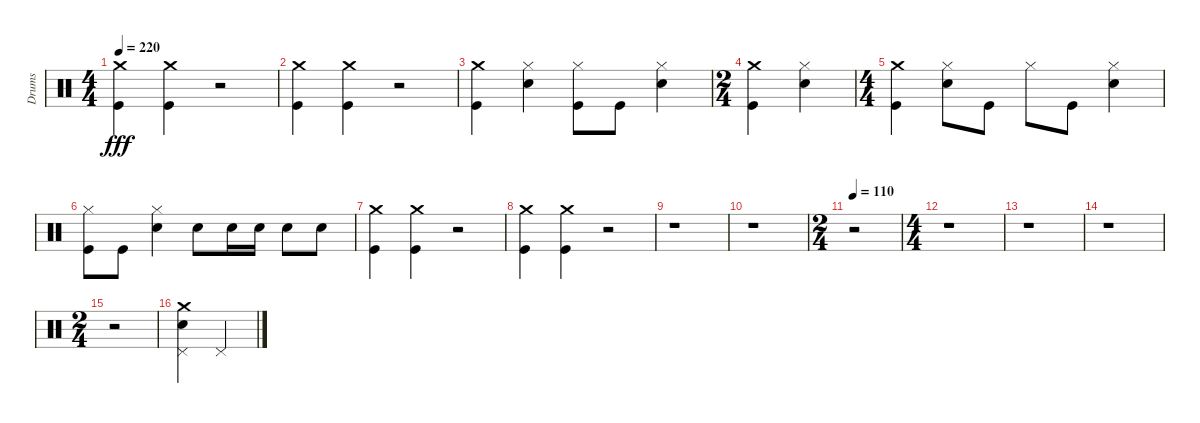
\track ("Drums" "Drums") {instrument percussion}
\staff {score}
\articulation defaults
\ts (4 4)
\tempo 220
\clef neutral
\ks c
("Kick (hit)" "Crash medium (hit)").4{dy fff} ("Kick (hit)" "Crash medium (hit)").4 r.2 |
("Kick (hit)" "Crash medium (hit)").4 ("Crash medium (hit)" "Kick (hit)").4 r.2 |
("Kick (hit)" "Crash medium (hit)").4 ("Snare (hit) 2" "Hi-Hat (closed)").4 ("Kick (hit)" "Hi-Hat (closed)").8 "Kick (hit)".8 ("Snare (hit) 2" "Hi-Hat (closed)").4 |
\ts (2 4)
("Crash medium (hit)" "Kick (hit)").4 ("Snare (hit) 2" "Hi-Hat (closed)").4 |
\ts (4 4)
("Kick (hit)" "Crash medium (hit)").4 ("Snare (hit) 2" "Hi-Hat (closed)").8 "Kick (hit)".8 "Hi-Hat (closed)".8 "Kick (hit)".8 ("Snare (hit) 2" "Hi-Hat (closed)").4 |
("Hi-Hat (closed)" "Kick (hit)").8 "Kick (hit)".8 ("Hi-Hat (closed)" "Snare (hit) 2").4 "Snare (hit) 2".8 "Snare (hit) 2".16 "Snare (hit) 2".16 "Snare (hit) 2".8 "Snare (hit) 2".8 |
("Kick (hit)" "Crash medium (hit)").4 ("Kick (hit)" "Crash medium (hit)").4 r.2 |
("Crash medium (hit)" "Kick (hit)").4 ("Kick (hit)" "Crash medium (hit)").4 r.2 |
r.1 |
r.1 |
\ts (2 4)
\tempo 110
r.2 |
\ts (4 4)
r.1 |
r.1 |
r.1 |
\ts (2 4)
r.2 |
("Crash medium (hit)" "Pedal Hi-Hat (hit)" "Snare (hit) 2").4 "Pedal Hi-Hat (hit)".4
